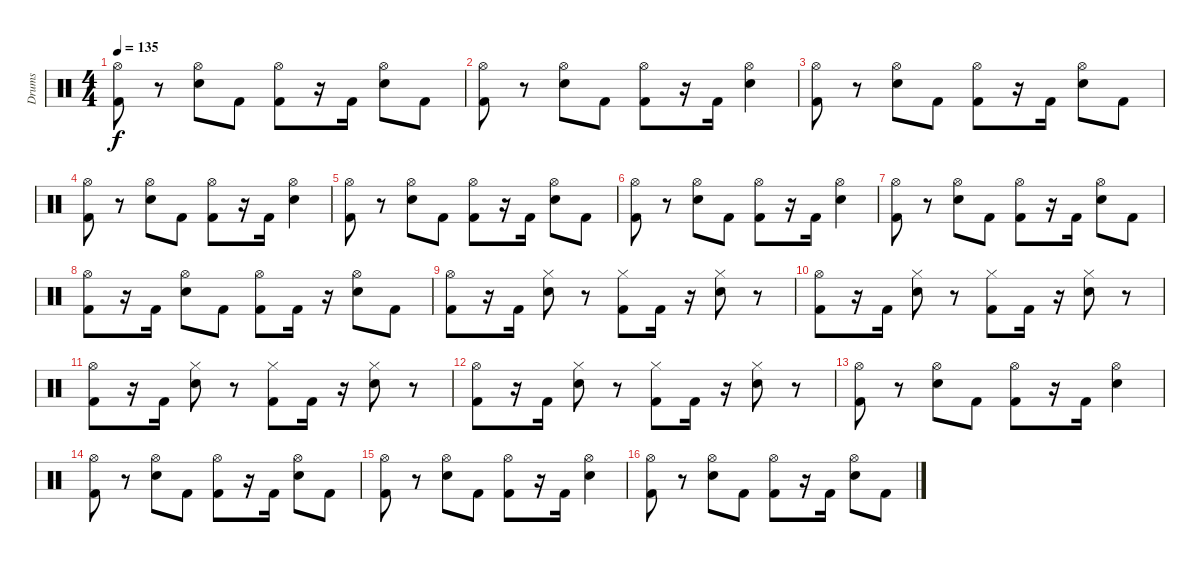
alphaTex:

\track ("Drums" "Drums") {instrument percussion}
\staff {score}
\articulation defaults
\ts (4 4)
\tempo 135
\clef neutral
\ks c
("Hi-Hat (open)" "Kick (hit) 2").8{dy f} r.8 ("Hi-Hat (open)" "Snare (hit) 2").8 "Kick (hit) 2".8 ("Hi-Hat (open)" "Kick (hit) 2").8 r.16 "Kick (hit) 2".16 ("Hi-Hat (open)" "Snare (hit) 2").8 "Kick (hit) 2".8 |
("Hi-Hat (open)" "Kick (hit) 2").8 r.8 ("Hi-Hat (open)" "Snare (hit) 2").8 "Kick (hit) 2".8 ("Hi-Hat (open)" "Kick (hit) 2").8 r.16 "Kick (hit) 2".16 ("Hi-Hat (open)" "Snare (hit) 2").4 |
("Hi-Hat (open)" "Kick (hit) 2").8 r.8 ("Hi-Hat (open)" "Snare (hit) 2").8 "Kick (hit) 2".8 ("Hi-Hat (open)" "Kick (hit) 2").8 r.16 "Kick (hit) 2".16 ("Hi-Hat (open)" "Snare (hit) 2").8 "Kick (hit) 2".8 |
("Hi-Hat (open)" "Kick (hit) 2").8 r.8 ("Hi-Hat (open)" "Snare (hit) 2").8 "Kick (hit) 2".8 ("Hi-Hat (open)" "Kick (hit) 2").8 r.16 "Kick (hit) 2".16 ("Hi-Hat (open)" "Snare (hit) 2").4 |
("Hi-Hat (open)" "Kick (hit) 2").8 r.8 ("Hi-Hat (open)" "Snare (hit) 2").8 "Kick (hit) 2".8 ("Hi-Hat (open)" "Kick (hit) 2").8 r.16 "Kick (hit) 2".16 ("Hi-Hat (open)" "Snare (hit) 2").8 "Kick (hit) 2".8 |
("Hi-Hat (open)" "Kick (hit) 2").8 r.8 ("Hi-Hat (open)" "Snare (hit) 2").8 "Kick (hit) 2".8 ("Hi-Hat (open)" "Kick (hit) 2").8 r.16 "Kick (hit) 2".16 ("Hi-Hat (open)" "Snare (hit) 2").4 |
("Hi-Hat (open)" "Kick (hit) 2").8 r.8 ("Hi-Hat (open)" "Snare (hit) 2").8 "Kick (hit) 2".8 ("Hi-Hat (open)" "Kick (hit) 2").8 r.16 "Kick (hit) 2".16 ("Hi-Hat (open)" "Snare (hit) 2").8 "Kick (hit) 2".8 |
("Hi-Hat (open)" "Kick (hit) 2").8 r.16 "Kick (hit) 2".16 ("Hi-Hat (open)" "Snare (hit) 2").8 "Kick (hit) 2".8 ("Hi-Hat (open)" "Kick (hit) 2").8 "Kick (hit) 2".16 r.16 ("Hi-Hat (open)" "Snare (hit) 2").8 "Kick (hit) 2".8 |
("Hi-Hat (open)" "Kick (hit) 2").8 r.16 "Kick (hit) 2".16 ("Hi-Hat (closed)" "Snare (hit) 2").8 r.8 ("Hi-Hat (closed)" "Kick (hit) 2").8 "Kick (hit) 2".16 r.16 ("Hi-Hat (closed)" "Snare (hit) 2").8 r.8 |
("Hi-Hat (open)" "Kick (hit) 2").8 r.16 "Kick (hit) 2".16 ("Hi-Hat (closed)" "Snare (hit) 2").8 r.8 ("Hi-Hat (closed)" "Kick (hit) 2").8 "Kick (hit) 2".16 r.16 ("Hi-Hat (closed)" "Snare (hit) 2").8 r.8 |
("Hi-Hat (open)" "Kick (hit) 2").8 r.16 "Kick (hit) 2".16 ("Hi-Hat (closed)" "Snare (hit) 2").8 r.8 ("Hi-Hat (closed)" "Kick (hit) 2").8 "Kick (hit) 2".16 r.16 ("Hi-Hat (closed)" "Snare (hit) 2").8 r.8 |
("Hi-Hat (open)" "Kick (hit) 2").8 r.16 "Kick (hit) 2".16 ("Hi-Hat (closed)" "Snare (hit) 2").8 r.8 ("Hi-Hat (closed)" "Kick (hit) 2").8 "Kick (hit) 2".16 r.16 ("Hi-Hat (closed)" "Snare (hit) 2").8 r.8 |
("Hi-Hat (open)" "Kick (hit) 2").8 r.8 ("Hi-Hat (open)" "Snare (hit) 2").8 "Kick (hit) 2".8 ("Hi-Hat (open)" "Kick (hit) 2").8 r.16 "Kick (hit) 2".16 ("Hi-Hat (open)" "Snare (hit) 2").4 |
("Hi-Hat (open)" "Kick (hit) 2").8 r.8 ("Hi-Hat (open)" "Snare (hit) 2").8 "Kick (hit) 2".8 ("Hi-Hat (open)" "Kick (hit) 2").8 r.16 "Kick (hit) 2".16 ("Hi-Hat (open)" "Snare (hit) 2").8 "Kick (hit) 2".8 |
("Hi-Hat (open)" "Kick (hit) 2").8 r.8 ("Hi-Hat (open)" "Snare (hit) 2").8 "Kick (hit) 2".8 ("Hi-Hat (open)" "Kick (hit) 2").8 r.16 "Kick (hit) 2".16 ("Hi-Hat (open)" "Snare (hit) 2").4 |
("Hi-Hat (open)" "Kick (hit) 2").8 r.8 ("Hi-Hat (open)" "Snare (hit) 2").8 "Kick (hit) 2".8 ("Hi-Hat (open)" "Kick (hit) 2").8 r.16 "Kick (hit) 2".16 ("Hi-Hat (open)" "Snare (hit) 2").8 "Kick (hit) 2".8
